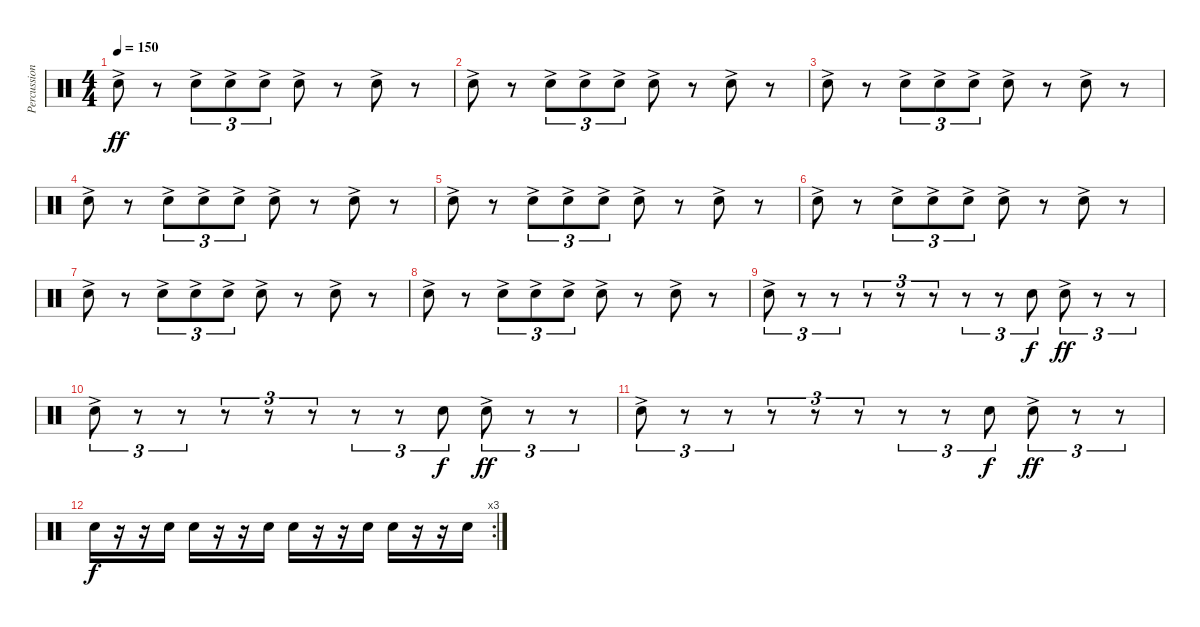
\track ("Percussion" "Percussion") {instrument percussion}
\staff {score}
\articulation defaults
\ts (4 4)
\tempo 150
\clef neutral
\ks c "Snare (hit) 2"{ac}.8{dy ff}
r.8 "Snare (hit) 2"{ac}.8{tu (3 2)} "Snare (hit) 2"{ac}.8{tu (3 2)} "Snare (hit) 2"{ac}.8{tu (3 2)} "Snare (hit) 2"{ac}.8 r.8 "Snare (hit) 2"{ac}.8 r.8 |
"Snare (hit) 2"{ac}.8 r.8 "Snare (hit) 2"{ac}.8{tu (3 2)} "Snare (hit) 2"{ac}.8{tu (3 2)} "Snare (hit) 2"{ac}.8{tu (3 2)} "Snare (hit) 2"{ac}.8 r.8 "Snare (hit) 2"{ac}.8 r.8 |
"Snare (hit) 2"{ac}.8 r.8 "Snare (hit) 2"{ac}.8{tu (3 2)} "Snare (hit) 2"{ac}.8{tu (3 2)} "Snare (hit) 2"{ac}.8{tu (3 2)} "Snare (hit) 2"{ac}.8 r.8 "Snare (hit) 2"{ac}.8 r.8 |
"Snare (hit) 2"{ac}.8 r.8 "Snare (hit) 2"{ac}.8{tu (3 2)} "Snare (hit) 2"{ac}.8{tu (3 2)} "Snare (hit) 2"{ac}.8{tu (3 2)} "Snare (hit) 2"{ac}.8 r.8 "Snare (hit) 2"{ac}.8 r.8 |
"Snare (hit) 2"{ac}.8 r.8 "Snare (hit) 2"{ac}.8{tu (3 2)} "Snare (hit) 2"{ac}.8{tu (3 2)} "Snare (hit) 2"{ac}.8{tu (3 2)} "Snare (hit) 2"{ac}.8 r.8 "Snare (hit) 2"{ac}.8 r.8 |
"Snare (hit) 2"{ac}.8 r.8 "Snare (hit) 2"{ac}.8{tu (3 2)} "Snare (hit) 2"{ac}.8{tu (3 2)} "Snare (hit) 2"{ac}.8{tu (3 2)} "Snare (hit) 2"{ac}.8 r.8 "Snare (hit) 2"{ac}.8 r.8 |
"Snare (hit) 2"{ac}.8 r.8 "Snare (hit) 2"{ac}.8{tu (3 2)} "Snare (hit) 2"{ac}.8{tu (3 2)} "Snare (hit) 2"{ac}.8{tu (3 2)} "Snare (hit) 2"{ac}.8 r.8 "Snare (hit) 2"{ac}.8 r.8 |
"Snare (hit) 2"{ac}.8 r.8 "Snare (hit) 2"{ac}.8{tu (3 2)} "Snare (hit) 2"{ac}.8{tu (3 2)} "Snare (hit) 2"{ac}.8{tu (3 2)} "Snare (hit) 2"{ac}.8 r.8 "Snare (hit) 2"{ac}.8 r.8 |
"Snare (hit) 2"{ac}.8{tu (3 2)} r.8{tu (3 2)} r.8{tu (3 2)} r.8{tu (3 2)} r.8{tu (3 2)} r.8{tu (3 2)} r.8{tu (3 2)} r.8{tu (3 2)} "Snare (hit) 2".8{tu (3 2) dy f} "Snare (hit) 2"{ac}.8{tu (3 2) dy ff} r.8{tu (3 2)} r.8{tu (3 2)} |
"Snare (hit) 2"{ac}.8{tu (3 2)} r.8{tu (3 2)} r.8{tu (3 2)} r.8{tu (3 2)} r.8{tu (3 2)} r.8{tu (3 2)} r.8{tu (3 2)} r.8{tu (3 2)} "Snare (hit) 2".8{tu (3 2) dy f} "Snare (hit) 2"{ac}.8{tu (3 2) dy ff} r.8{tu (3 2)} r.8{tu (3 2)} |
"Snare (hit) 2"{ac}.8{tu (3 2)} r.8{tu (3 2)} r.8{tu (3 2)} r.8{tu (3 2)} r.8{tu (3 2)} r.8{tu (3 2)} r.8{tu (3 2)} r.8{tu (3 2)} "Snare (hit) 2".8{tu (3 2) dy f} "Snare (hit) 2"{ac}.8{tu (3 2) dy ff} r.8{tu (3 2)} r.8{tu (3 2)} |
\rc 3 "Snare (hit) 2".16{dy f}
r.16 r.16 "Snare (hit) 2".16 "Snare (hit) 2".16 r.16 r.16 "Snare (hit) 2".16 "Snare (hit) 2".16 r.16 r.16 "Snare (hit) 2".16 "Snare (hit) 2".16 r.16 r.16 "Snare (hit) 2".16
